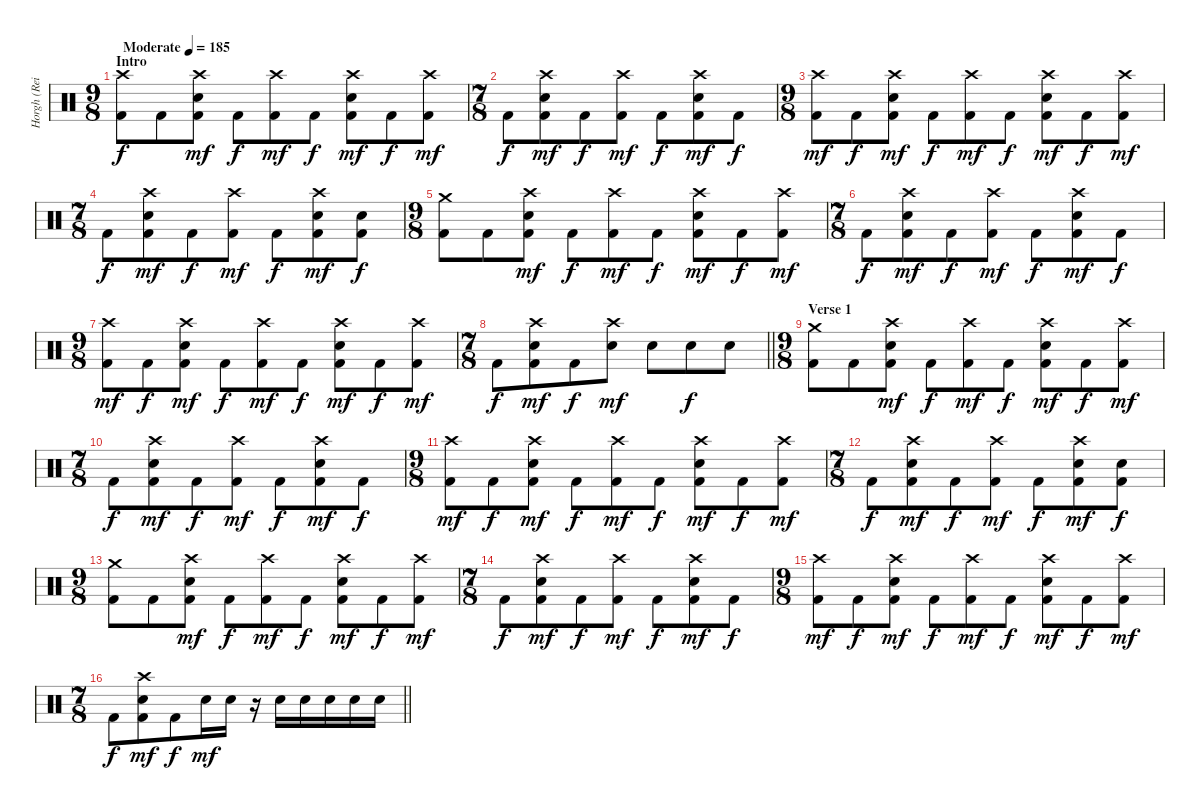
\track ("Horgh (Reidar Horghagen)" "Horgh (Rei") {instrument percussion}
\staff {score}
\articulation defaults
\ts (9 8)
\section ("" "Intro")
\tempo (185 "Moderate")
\clef neutral
\ks c
("Crash high (hit)" "Kick (hit) 2").8{dy f} "Kick (hit) 2".8 ("Crash high (hit)" "Snare (hit) 2" "Kick (hit) 2").8{dy mf} "Kick (hit) 2".8{dy f} ("Crash high (hit)" "Kick (hit) 2").8{dy mf} "Kick (hit) 2".8{dy f} ("Crash high (hit)" "Snare (hit) 2" "Kick (hit) 2").8{dy mf} "Kick (hit) 2".8{dy f} ("Crash high (hit)" "Kick (hit) 2").8{dy mf} |
\ts (7 8)
"Kick (hit) 2".8{dy f} ("Crash high (hit)" "Snare (hit) 2" "Kick (hit) 2").8{dy mf} "Kick (hit) 2".8{dy f} ("Crash high (hit)" "Kick (hit) 2").8{dy mf} "Kick (hit) 2".8{dy f} ("Crash high (hit)" "Snare (hit) 2" "Kick (hit) 2").8{dy mf} "Kick (hit) 2".8{dy f} |
\ts (9 8)
("Crash high (hit)" "Kick (hit) 2").8{dy mf} "Kick (hit) 2".8{dy f} ("Crash high (hit)" "Snare (hit) 2" "Kick (hit) 2").8{dy mf} "Kick (hit) 2".8{dy f} ("Crash high (hit)" "Kick (hit) 2").8{dy mf} "Kick (hit) 2".8{dy f} ("Crash high (hit)" "Snare (hit) 2" "Kick (hit) 2").8{dy mf} "Kick (hit) 2".8{dy f} ("Crash high (hit)" "Kick (hit) 2").8{dy mf} |
\ts (7 8)
"Kick (hit) 2".8{dy f} ("Crash high (hit)" "Snare (hit) 2" "Kick (hit) 2").8{dy mf} "Kick (hit) 2".8{dy f} ("Crash high (hit)" "Kick (hit) 2").8{dy mf} "Kick (hit) 2".8{dy f} ("Crash high (hit)" "Snare (hit) 2" "Kick (hit) 2").8{dy mf} ("Snare (hit) 2" "Kick (hit) 2").8{dy f} |
\ts (9 8)
("Crash medium (hit)" "Kick (hit) 2").8 "Kick (hit) 2".8 ("Crash high (hit)" "Snare (hit) 2" "Kick (hit) 2").8{dy mf} "Kick (hit) 2".8{dy f} ("Crash high (hit)" "Kick (hit) 2").8{dy mf} "Kick (hit) 2".8{dy f} ("Crash high (hit)" "Snare (hit) 2" "Kick (hit) 2").8{dy mf} "Kick (hit) 2".8{dy f} ("Crash high (hit)" "Kick (hit) 2").8{dy mf} |
\ts (7 8)
"Kick (hit) 2".8{dy f} ("Crash high (hit)" "Snare (hit) 2" "Kick (hit) 2").8{dy mf} "Kick (hit) 2".8{dy f} ("Crash high (hit)" "Kick (hit) 2").8{dy mf} "Kick (hit) 2".8{dy f} ("Crash high (hit)" "Snare (hit) 2" "Kick (hit) 2").8{dy mf} "Kick (hit) 2".8{dy f} |
\ts (9 8)
("Crash high (hit)" "Kick (hit) 2").8{dy mf} "Kick (hit) 2".8{dy f} ("Crash high (hit)" "Snare (hit) 2" "Kick (hit) 2").8{dy mf} "Kick (hit) 2".8{dy f} ("Crash high (hit)" "Kick (hit) 2").8{dy mf} "Kick (hit) 2".8{dy f} ("Crash high (hit)" "Snare (hit) 2" "Kick (hit) 2").8{dy mf} "Kick (hit) 2".8{dy f} ("Crash high (hit)" "Kick (hit) 2").8{dy mf} |
\ts (7 8)
\barLineRight lightlight "Kick (hit) 2".8{dy f}
("Crash high (hit)" "Snare (hit) 2" "Kick (hit) 2").8{dy mf} "Kick (hit) 2".8{dy f} ("Crash high (hit)" "Snare (hit) 2").8{dy mf} "Snare (hit) 2".8 "Snare (hit) 2".8{dy f} "Snare (hit) 2".8 |
\ts (9 8)
\section ("" "Verse 1")
("Crash medium (hit)" "Kick (hit) 2").8 "Kick (hit) 2".8 ("Crash high (hit)" "Snare (hit) 2" "Kick (hit) 2").8{dy mf} "Kick (hit) 2".8{dy f} ("Crash high (hit)" "Kick (hit) 2").8{dy mf} "Kick (hit) 2".8{dy f} ("Crash high (hit)" "Snare (hit) 2" "Kick (hit) 2").8{dy mf} "Kick (hit) 2".8{dy f} ("Crash high (hit)" "Kick (hit) 2").8{dy mf} |
\ts (7 8)
"Kick (hit) 2".8{dy f} ("Crash high (hit)" "Snare (hit) 2" "Kick (hit) 2").8{dy mf} "Kick (hit) 2".8{dy f} ("Crash high (hit)" "Kick (hit) 2").8{dy mf} "Kick (hit) 2".8{dy f} ("Crash high (hit)" "Snare (hit) 2" "Kick (hit) 2").8{dy mf} "Kick (hit) 2".8{dy f} |
\ts (9 8)
("Crash high (hit)" "Kick (hit) 2").8{dy mf} "Kick (hit) 2".8{dy f} ("Crash high (hit)" "Snare (hit) 2" "Kick (hit) 2").8{dy mf} "Kick (hit) 2".8{dy f} ("Crash high (hit)" "Kick (hit) 2").8{dy mf} "Kick (hit) 2".8{dy f} ("Crash high (hit)" "Snare (hit) 2" "Kick (hit) 2").8{dy mf} "Kick (hit) 2".8{dy f} ("Crash high (hit)" "Kick (hit) 2").8{dy mf} |
\ts (7 8)
"Kick (hit) 2".8{dy f} ("Crash high (hit)" "Snare (hit) 2" "Kick (hit) 2").8{dy mf} "Kick (hit) 2".8{dy f} ("Crash high (hit)" "Kick (hit) 2").8{dy mf} "Kick (hit) 2".8{dy f} ("Crash high (hit)" "Snare (hit) 2" "Kick (hit) 2").8{dy mf} ("Snare (hit) 2" "Kick (hit) 2").8{dy f} |
\ts (9 8)
("Crash medium (hit)" "Kick (hit) 2").8 "Kick (hit) 2".8 ("Crash high (hit)" "Snare (hit) 2" "Kick (hit) 2").8{dy mf} "Kick (hit) 2".8{dy f} ("Crash high (hit)" "Kick (hit) 2").8{dy mf} "Kick (hit) 2".8{dy f} ("Crash high (hit)" "Snare (hit) 2" "Kick (hit) 2").8{dy mf} "Kick (hit) 2".8{dy f} ("Crash high (hit)" "Kick (hit) 2").8{dy mf} |
\ts (7 8)
"Kick (hit) 2".8{dy f} ("Crash high (hit)" "Snare (hit) 2" "Kick (hit) 2").8{dy mf} "Kick (hit) 2".8{dy f} ("Crash high (hit)" "Kick (hit) 2").8{dy mf} "Kick (hit) 2".8{dy f} ("Crash high (hit)" "Snare (hit) 2" "Kick (hit) 2").8{dy mf} "Kick (hit) 2".8{dy f} |
\ts (9 8)
("Crash high (hit)" "Kick (hit) 2").8{dy mf} "Kick (hit) 2".8{dy f} ("Crash high (hit)" "Snare (hit) 2" "Kick (hit) 2").8{dy mf} "Kick (hit) 2".8{dy f} ("Crash high (hit)" "Kick (hit) 2").8{dy mf} "Kick (hit) 2".8{dy f} ("Crash high (hit)" "Snare (hit) 2" "Kick (hit) 2").8{dy mf} "Kick (hit) 2".8{dy f} ("Crash high (hit)" "Kick (hit) 2").8{dy mf} |
\ts (7 8)
\barLineRight lightlight "Kick (hit) 2".8{dy f}
("Crash high (hit)" "Snare (hit) 2" "Kick (hit) 2").8{dy mf} "Kick (hit) 2".8{dy f} "Snare (hit) 2".16{dy mf} "Snare (hit) 2".16 r.16 "Snare (hit) 2".16 "Snare (hit) 2".16 "Snare (hit) 2".16 "Snare (hit) 2".16 "Snare (hit) 2".16
